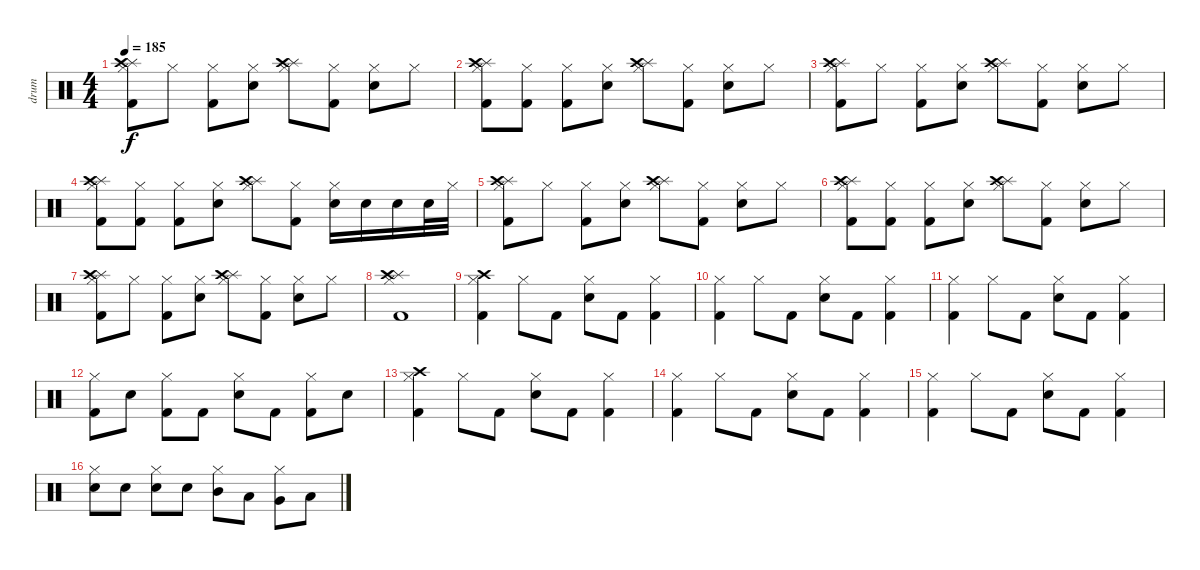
\track ("drum" "drum") {instrument percussion}
\staff {score}
\articulation defaults
\ts (4 4)
\tempo 185
\clef neutral
\ks c
("Splash (hit)" "Hi-Hat (closed)" "Crash high (hit)" "Kick (hit) 2").8{dy f} "Hi-Hat (closed)".8 ("Hi-Hat (closed)" "Kick (hit) 2").8 ("Hi-Hat (closed)" "Electric Snare (hit)").8 ("Splash (hit)" "Hi-Hat (closed)" "Crash high (hit)").8 ("Hi-Hat (closed)" "Kick (hit) 2").8 ("Hi-Hat (closed)" "Electric Snare (hit)").8 "Hi-Hat (closed)".8 |
("Splash (hit)" "Hi-Hat (closed)" "Crash high (hit)" "Kick (hit) 2").8 ("Hi-Hat (closed)" "Kick (hit) 2").8 ("Hi-Hat (closed)" "Kick (hit) 2").8 ("Hi-Hat (closed)" "Electric Snare (hit)").8 ("Splash (hit)" "Hi-Hat (closed)" "Crash high (hit)").8 ("Hi-Hat (closed)" "Kick (hit) 2").8 ("Hi-Hat (closed)" "Electric Snare (hit)").8 "Hi-Hat (closed)".8 |
("Splash (hit)" "Hi-Hat (closed)" "Crash high (hit)" "Kick (hit) 2").8 "Hi-Hat (closed)".8 ("Hi-Hat (closed)" "Kick (hit) 2").8 ("Hi-Hat (closed)" "Electric Snare (hit)").8 ("Splash (hit)" "Hi-Hat (closed)" "Crash high (hit)").8 ("Hi-Hat (closed)" "Kick (hit) 2").8 ("Hi-Hat (closed)" "Electric Snare (hit)").8 "Hi-Hat (closed)".8 |
("Splash (hit)" "Hi-Hat (closed)" "Crash high (hit)" "Kick (hit) 2").8 ("Hi-Hat (closed)" "Kick (hit) 2").8 ("Hi-Hat (closed)" "Kick (hit) 2").8 ("Hi-Hat (closed)" "Electric Snare (hit)").8 ("Splash (hit)" "Hi-Hat (closed)" "Crash high (hit)").8 ("Hi-Hat (closed)" "Kick (hit) 2").8 ("Hi-Hat (closed)" "Electric Snare (hit)").16 "Electric Snare (hit)".16 "Electric Snare (hit)".16 "Electric Snare (hit)".32 "Hi-Hat (closed)".32 |
("Splash (hit)" "Hi-Hat (closed)" "Crash high (hit)" "Kick (hit) 2").8 "Hi-Hat (closed)".8 ("Hi-Hat (closed)" "Kick (hit) 2").8 ("Hi-Hat (closed)" "Electric Snare (hit)").8 ("Splash (hit)" "Hi-Hat (closed)" "Crash high (hit)").8 ("Hi-Hat (closed)" "Kick (hit) 2").8 ("Hi-Hat (closed)" "Electric Snare (hit)").8 "Hi-Hat (closed)".8 |
("Splash (hit)" "Hi-Hat (closed)" "Crash high (hit)" "Kick (hit) 2").8 ("Hi-Hat (closed)" "Kick (hit) 2").8 ("Hi-Hat (closed)" "Kick (hit) 2").8 ("Hi-Hat (closed)" "Electric Snare (hit)").8 ("Splash (hit)" "Hi-Hat (closed)" "Crash high (hit)").8 ("Hi-Hat (closed)" "Kick (hit) 2").8 ("Hi-Hat (closed)" "Electric Snare (hit)").8 "Hi-Hat (closed)".8 |
("Splash (hit)" "Hi-Hat (closed)" "Crash high (hit)" "Kick (hit) 2").8 "Hi-Hat (closed)".8 ("Hi-Hat (closed)" "Kick (hit) 2").8 ("Hi-Hat (closed)" "Electric Snare (hit)").8 ("Splash (hit)" "Hi-Hat (closed)" "Crash high (hit)").8 ("Hi-Hat (closed)" "Kick (hit) 2").8 ("Hi-Hat (closed)" "Electric Snare (hit)").8 "Hi-Hat (closed)".8 |
("Splash (hit)" "Hi-Hat (closed)" "Crash high (hit)" "Kick (hit) 2").1 |
("Hi-Hat (closed)" "Crash high (hit)" "Kick (hit) 2").4 "Hi-Hat (closed)".8 "Kick (hit) 2".8 ("Hi-Hat (closed)" "Electric Snare (hit)").8 "Kick (hit) 2".8 ("Hi-Hat (closed)" "Kick (hit) 2").4 |
("Hi-Hat (closed)" "Kick (hit) 2").4 "Hi-Hat (closed)".8 "Kick (hit) 2".8 ("Hi-Hat (closed)" "Electric Snare (hit)").8 "Kick (hit) 2".8 ("Hi-Hat (closed)" "Kick (hit) 2").4 |
("Hi-Hat (closed)" "Kick (hit) 2").4 "Hi-Hat (closed)".8 "Kick (hit) 2".8 ("Hi-Hat (closed)" "Electric Snare (hit)").8 "Kick (hit) 2".8 ("Hi-Hat (closed)" "Kick (hit) 2").4 |
("Hi-Hat (closed)" "Kick (hit) 2").8 "Electric Snare (hit)".8 ("Hi-Hat (closed)" "Kick (hit) 2").8 "Kick (hit) 2".8 ("Hi-Hat (closed)" "Electric Snare (hit)").8 "Kick (hit) 2".8 ("Hi-Hat (closed)" "Kick (hit) 2").8 "Electric Snare (hit)".8 |
("Hi-Hat (closed)" "Crash high (hit)" "Kick (hit) 2").4 "Hi-Hat (closed)".8 "Kick (hit) 2".8 ("Hi-Hat (closed)" "Electric Snare (hit)").8 "Kick (hit) 2".8 ("Hi-Hat (closed)" "Kick (hit) 2").4 |
("Hi-Hat (closed)" "Kick (hit) 2").4 "Hi-Hat (closed)".8 "Kick (hit) 2".8 ("Hi-Hat (closed)" "Electric Snare (hit)").8 "Kick (hit) 2".8 ("Hi-Hat (closed)" "Kick (hit) 2").4 |
("Hi-Hat (closed)" "Kick (hit) 2").4 "Hi-Hat (closed)".8 "Kick (hit) 2".8 ("Hi-Hat (closed)" "Electric Snare (hit)").8 "Kick (hit) 2".8 ("Hi-Hat (closed)" "Kick (hit) 2").4 |
("Hi-Hat (closed)" "Electric Snare (hit)").8 "Electric Snare (hit)".8 ("Hi-Hat (closed)" "Electric Snare (hit)").8 "Electric Snare (hit)".8 ("Hi-Hat (closed)" "Mid Tom (hit)").8 "Low Tom (hit)".8 ("Hi-Hat (closed)" "Very Low Tom (hit)").8 "Low Floor Tom (hit)".8
